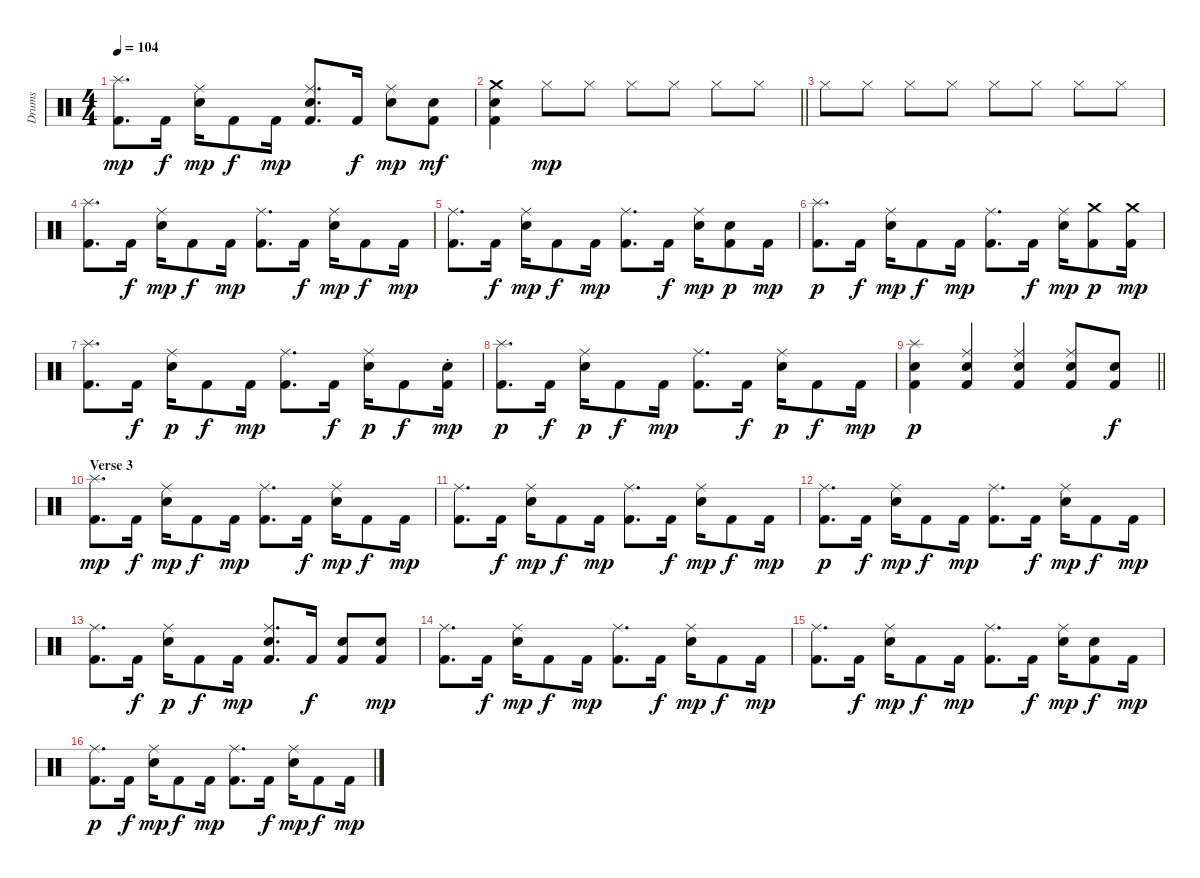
\track ("Drums" "Drums") {instrument percussion}
\staff {score}
\articulation defaults
\ts (4 4)
\tempo 104
\clef neutral
\ks c
("Splash (hit)" "Kick (hit) 2").8{d dy mp} "Kick (hit) 2".16{dy f} ("Ride (middle)" "Electric Snare (hit)").16{dy mp} "Kick (hit) 2".8{dy f} "Kick (hit) 2".16{dy mp} ("Ride (middle)" "Electric Snare (hit)" "Kick (hit) 2").8{d} "Kick (hit) 2".16{dy f} ("Ride (middle)" "Electric Snare (hit)").8{dy mp} ("Electric Snare (hit)" "Kick (hit) 2").8{dy mf} |
\barLineRight lightlight
("Crash medium (hit)" "Electric Snare (hit)" "Kick (hit) 2").4 "Hi-Hat (closed)".8{dy mp} "Hi-Hat (closed)".8 "Hi-Hat (closed)".8 "Hi-Hat (closed)".8 "Hi-Hat (closed)".8 "Hi-Hat (closed)".8 |
"Hi-Hat (closed)".8 "Hi-Hat (closed)".8 "Hi-Hat (closed)".8 "Hi-Hat (closed)".8 "Hi-Hat (closed)".8 "Hi-Hat (closed)".8 "Hi-Hat (closed)".8 "Hi-Hat (closed)".8 |
("Splash (hit)" "Kick (hit) 2").8{d} "Kick (hit) 2".16{dy f} ("Ride (middle)" "Electric Snare (hit)").16{dy mp} "Kick (hit) 2".8{dy f} "Kick (hit) 2".16{dy mp} ("Ride (middle)" "Kick (hit) 2").8{d} "Kick (hit) 2".16{dy f} ("Ride (middle)" "Electric Snare (hit)").16{dy mp} "Kick (hit) 2".8{dy f} "Kick (hit) 2".16{dy mp} |
("Ride (middle)" "Kick (hit) 2").8{d} "Kick (hit) 2".16{dy f} ("Ride (middle)" "Electric Snare (hit)").16{dy mp} "Kick (hit) 2".8{dy f} "Kick (hit) 2".16{dy mp} ("Ride (middle)" "Kick (hit) 2").8{d} "Kick (hit) 2".16{dy f} ("Ride (middle)" "Electric Snare (hit)").16{dy mp} ("Electric Snare (hit)" "Kick (hit) 2").8{dy p} "Kick (hit) 2".16{dy mp} |
("Splash (hit)" "Kick (hit) 2").8{d dy p} "Kick (hit) 2".16{dy f} ("Ride (middle)" "Electric Snare (hit)").16{dy mp} "Kick (hit) 2".8{dy f} "Kick (hit) 2".16{dy mp} ("Ride (middle)" "Kick (hit) 2").8{d} "Kick (hit) 2".16{dy f} ("Ride (middle)" "Electric Snare (hit)").16{dy mp} ("Crash medium (hit)" "Kick (hit) 2").8{dy p} ("Crash medium (hit)" "Kick (hit) 2").16{dy mp} |
("Splash (hit)" "Kick (hit) 2").8{d} "Kick (hit) 2".16{dy f} ("Ride (middle)" "Electric Snare (hit)").16{dy p} "Kick (hit) 2".8{dy f} "Kick (hit) 2".16{dy mp} ("Ride (middle)" "Kick (hit) 2").8{d} "Kick (hit) 2".16{dy f} ("Ride (middle)" "Electric Snare (hit)").16{dy p} "Kick (hit) 2".8{dy f} ("Electric Snare (hit)"{st} "Kick (hit) 2").16{dy mp} |
("Splash (hit)" "Kick (hit) 2").8{d dy p} "Kick (hit) 2".16{dy f} ("Ride (middle)" "Electric Snare (hit)").16{dy p} "Kick (hit) 2".8{dy f} "Kick (hit) 2".16{dy mp} ("Ride (middle)" "Kick (hit) 2").8{d} "Kick (hit) 2".16{dy f} ("Ride (middle)" "Electric Snare (hit)").16{dy p} "Kick (hit) 2".8{dy f} "Kick (hit) 2".16{dy mp} |
\barLineRight lightlight
("Splash (hit)" "Electric Snare (hit)" "Kick (hit) 2").4{dy p} ("Ride (middle)" "Electric Snare (hit)" "Kick (hit) 2").4 ("Ride (middle)" "Electric Snare (hit)" "Kick (hit) 2").4 ("Ride (middle)" "Electric Snare (hit)" "Kick (hit) 2").8 ("Electric Snare (hit)" "Kick (hit) 2").8{dy f} |
\section ("" "Verse 3")
("Splash (hit)" "Kick (hit) 2").8{d dy mp} "Kick (hit) 2".16{dy f} ("Ride (middle)" "Electric Snare (hit)").16{dy mp} "Kick (hit) 2".8{dy f} "Kick (hit) 2".16{dy mp} ("Ride (middle)" "Kick (hit) 2").8{d} "Kick (hit) 2".16{dy f} ("Ride (middle)" "Electric Snare (hit)").16{dy mp} "Kick (hit) 2".8{dy f} "Kick (hit) 2".16{dy mp} |
("Ride (middle)" "Kick (hit) 2").8{d} "Kick (hit) 2".16{dy f} ("Ride (middle)" "Electric Snare (hit)").16{dy mp} "Kick (hit) 2".8{dy f} "Kick (hit) 2".16{dy mp} ("Ride (middle)" "Kick (hit) 2").8{d} "Kick (hit) 2".16{dy f} ("Ride (middle)" "Electric Snare (hit)").16{dy mp} "Kick (hit) 2".8{dy f} "Kick (hit) 2".16{dy mp} |
("Ride (middle)" "Kick (hit) 2").8{d dy p} "Kick (hit) 2".16{dy f} ("Ride (middle)" "Electric Snare (hit)").16{dy mp} "Kick (hit) 2".8{dy f} "Kick (hit) 2".16{dy mp} ("Ride (middle)" "Kick (hit) 2").8{d} "Kick (hit) 2".16{dy f} ("Ride (middle)" "Electric Snare (hit)").16{dy mp} "Kick (hit) 2".8{dy f} "Kick (hit) 2".16{dy mp} |
("Ride (middle)" "Kick (hit) 2").8{d} "Kick (hit) 2".16{dy f} ("Ride (middle)" "Electric Snare (hit)").16{dy p} "Kick (hit) 2".8{dy f} "Kick (hit) 2".16{dy mp} ("Ride (middle)" "Electric Snare (hit)" "Kick (hit) 2").8{d} "Kick (hit) 2".16{dy f} ("Electric Snare (hit)" "Kick (hit) 2").8 ("Electric Snare (hit)" "Kick (hit) 2").8{dy mp} |
("Ride (middle)" "Kick (hit) 2").8{d} "Kick (hit) 2".16{dy f} ("Ride (middle)" "Electric Snare (hit)").16{dy mp} "Kick (hit) 2".8{dy f} "Kick (hit) 2".16{dy mp} ("Ride (middle)" "Kick (hit) 2").8{d} "Kick (hit) 2".16{dy f} ("Ride (middle)" "Electric Snare (hit)").16{dy mp} "Kick (hit) 2".8{dy f} "Kick (hit) 2".16{dy mp} |
("Ride (middle)" "Kick (hit) 2").8{d} "Kick (hit) 2".16{dy f} ("Ride (middle)" "Electric Snare (hit)").16{dy mp} "Kick (hit) 2".8{dy f} "Kick (hit) 2".16{dy mp} ("Ride (middle)" "Kick (hit) 2").8{d} "Kick (hit) 2".16{dy f} ("Ride (middle)" "Electric Snare (hit)").16{dy mp} ("Electric Snare (hit)" "Kick (hit) 2").8{dy f} "Kick (hit) 2".16{dy mp} |
("Ride (middle)" "Kick (hit) 2").8{d dy p} "Kick (hit) 2".16{dy f} ("Ride (middle)" "Electric Snare (hit)").16{dy mp} "Kick (hit) 2".8{dy f} "Kick (hit) 2".16{dy mp} ("Ride (middle)" "Kick (hit) 2").8{d} "Kick (hit) 2".16{dy f} ("Ride (middle)" "Electric Snare (hit)").16{dy mp} "Kick (hit) 2".8{dy f} "Kick (hit) 2".16{dy mp}
